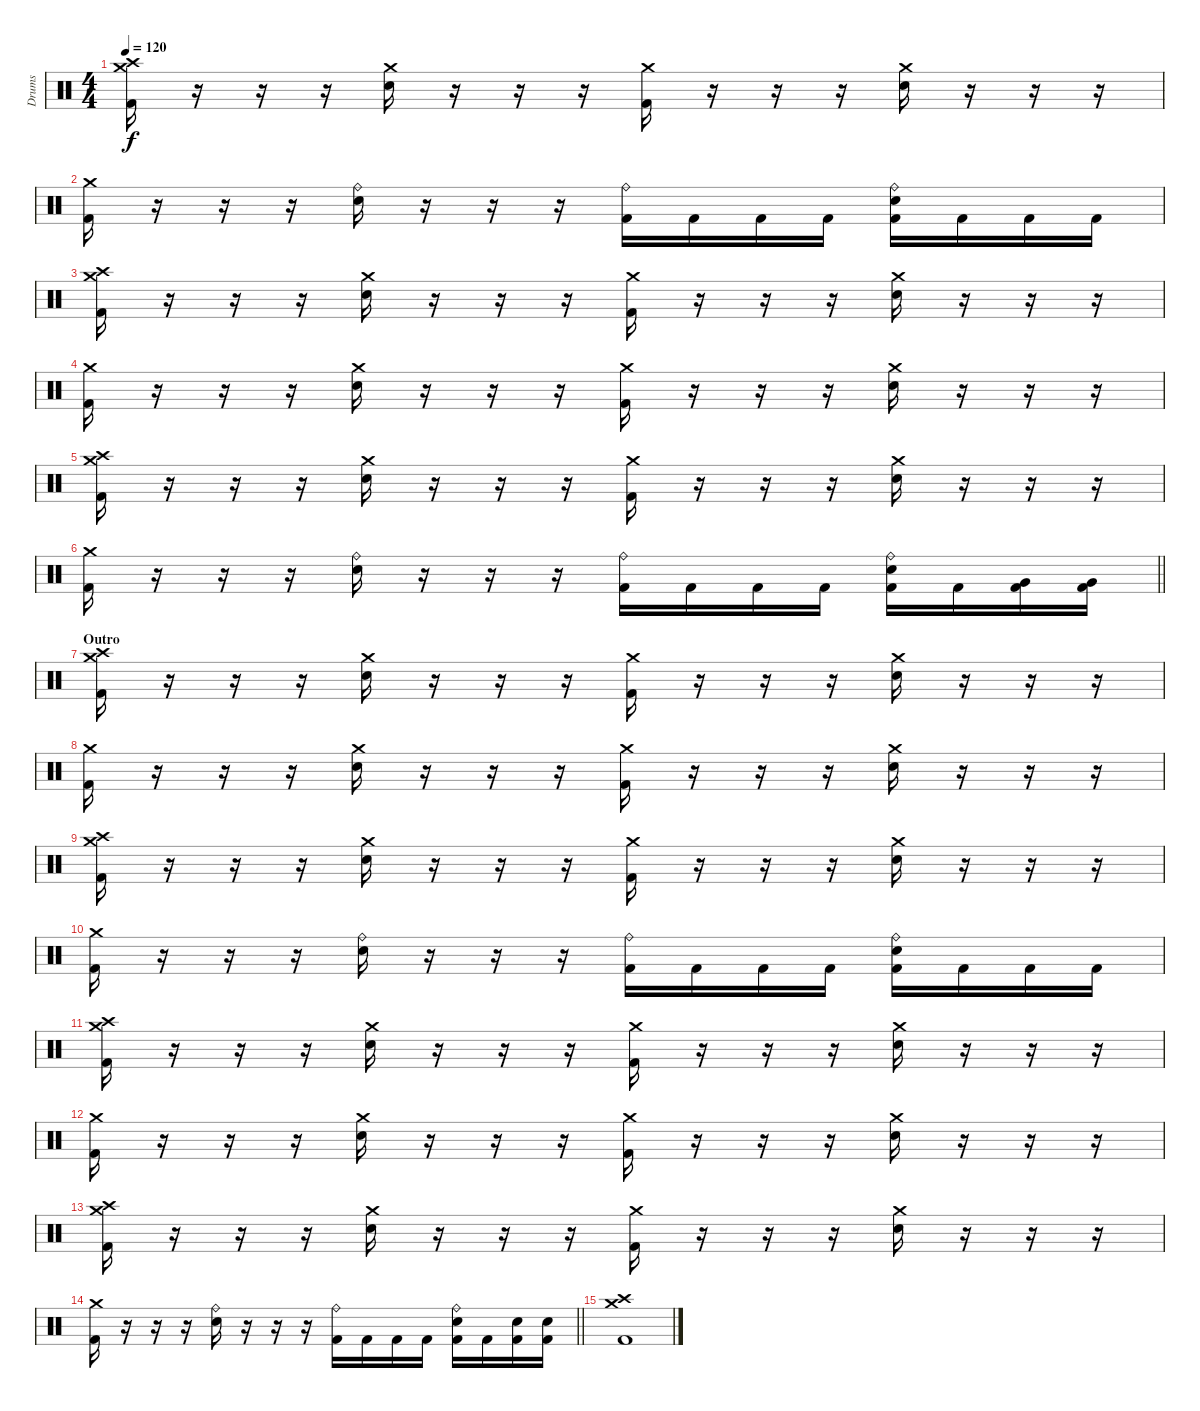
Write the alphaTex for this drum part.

\track ("Drums" "Drums") {instrument percussion}
\staff {score}
\articulation defaults
\ts (4 4)
\tempo 120
\clef neutral
\ks c
("Crash medium (hit)" "Crash high (hit)" "Kick (hit) 2").16{dy f} r.16 r.16 r.16 ("Crash medium (hit)" "Electric Snare (hit)").16 r.16 r.16 r.16 ("Crash medium (hit)" "Kick (hit) 2").16 r.16 r.16 r.16 ("Crash medium (hit)" "Electric Snare (hit)").16 r.16 r.16 r.16 |
("Crash medium (hit)" "Kick (hit) 2").16 r.16 r.16 r.16 ("Ride (bell)" "Electric Snare (hit)").16 r.16 r.16 r.16 ("Ride (bell)" "Kick (hit) 2").16 "Kick (hit) 2".16 "Kick (hit) 2".16 "Kick (hit) 2".16 ("Ride (bell)" "Electric Snare (hit)" "Kick (hit) 2").16 "Kick (hit) 2".16 "Kick (hit) 2".16 "Kick (hit) 2".16 |
("Crash medium (hit)" "Crash high (hit)" "Kick (hit) 2").16 r.16 r.16 r.16 ("Crash medium (hit)" "Electric Snare (hit)").16 r.16 r.16 r.16 ("Crash medium (hit)" "Kick (hit) 2").16 r.16 r.16 r.16 ("Crash medium (hit)" "Electric Snare (hit)").16 r.16 r.16 r.16 |
("Crash medium (hit)" "Kick (hit) 2").16 r.16 r.16 r.16 ("Crash medium (hit)" "Electric Snare (hit)").16 r.16 r.16 r.16 ("Crash medium (hit)" "Kick (hit) 2").16 r.16 r.16 r.16 ("Crash medium (hit)" "Electric Snare (hit)").16 r.16 r.16 r.16 |
("Crash medium (hit)" "Crash high (hit)" "Kick (hit) 2").16 r.16 r.16 r.16 ("Crash medium (hit)" "Electric Snare (hit)").16 r.16 r.16 r.16 ("Crash medium (hit)" "Kick (hit) 2").16 r.16 r.16 r.16 ("Crash medium (hit)" "Electric Snare (hit)").16 r.16 r.16 r.16 |
\barLineRight lightlight
("Crash medium (hit)" "Kick (hit) 2").16 r.16 r.16 r.16 ("Ride (bell)" "Electric Snare (hit)").16 r.16 r.16 r.16 ("Ride (bell)" "Kick (hit) 2").16 "Kick (hit) 2".16 "Kick (hit) 2".16 "Kick (hit) 2".16 ("Ride (bell)" "Electric Snare (hit)" "Kick (hit) 2").16 "Kick (hit) 2".16 ("Very Low Tom (hit)" "Kick (hit) 2").16 ("Very Low Tom (hit)" "Kick (hit) 2").16 |
\section ("" "Outro")
("Crash medium (hit)" "Crash high (hit)" "Kick (hit) 2").16 r.16 r.16 r.16 ("Crash medium (hit)" "Electric Snare (hit)").16 r.16 r.16 r.16 ("Crash medium (hit)" "Kick (hit) 2").16 r.16 r.16 r.16 ("Crash medium (hit)" "Electric Snare (hit)").16 r.16 r.16 r.16 |
("Crash medium (hit)" "Kick (hit) 2").16 r.16 r.16 r.16 ("Crash medium (hit)" "Electric Snare (hit)").16 r.16 r.16 r.16 ("Crash medium (hit)" "Kick (hit) 2").16 r.16 r.16 r.16 ("Crash medium (hit)" "Electric Snare (hit)").16 r.16 r.16 r.16 |
("Crash medium (hit)" "Crash high (hit)" "Kick (hit) 2").16 r.16 r.16 r.16 ("Crash medium (hit)" "Electric Snare (hit)").16 r.16 r.16 r.16 ("Crash medium (hit)" "Kick (hit) 2").16 r.16 r.16 r.16 ("Crash medium (hit)" "Electric Snare (hit)").16 r.16 r.16 r.16 |
("Crash medium (hit)" "Kick (hit) 2").16 r.16 r.16 r.16 ("Ride (bell)" "Electric Snare (hit)").16 r.16 r.16 r.16 ("Ride (bell)" "Kick (hit) 2").16 "Kick (hit) 2".16 "Kick (hit) 2".16 "Kick (hit) 2".16 ("Ride (bell)" "Electric Snare (hit)" "Kick (hit) 2").16 "Kick (hit) 2".16 "Kick (hit) 2".16 "Kick (hit) 2".16 |
("Crash medium (hit)" "Crash high (hit)" "Kick (hit) 2").16 r.16 r.16 r.16 ("Crash medium (hit)" "Electric Snare (hit)").16 r.16 r.16 r.16 ("Crash medium (hit)" "Kick (hit) 2").16 r.16 r.16 r.16 ("Crash medium (hit)" "Electric Snare (hit)").16 r.16 r.16 r.16 |
("Crash medium (hit)" "Kick (hit) 2").16 r.16 r.16 r.16 ("Crash medium (hit)" "Electric Snare (hit)").16 r.16 r.16 r.16 ("Crash medium (hit)" "Kick (hit) 2").16 r.16 r.16 r.16 ("Crash medium (hit)" "Electric Snare (hit)").16 r.16 r.16 r.16 |
("Crash medium (hit)" "Crash high (hit)" "Kick (hit) 2").16 r.16 r.16 r.16 ("Crash medium (hit)" "Electric Snare (hit)").16 r.16 r.16 r.16 ("Crash medium (hit)" "Kick (hit) 2").16 r.16 r.16 r.16 ("Crash medium (hit)" "Electric Snare (hit)").16 r.16 r.16 r.16 |
\barLineRight lightlight
("Crash medium (hit)" "Kick (hit) 2").16 r.16 r.16 r.16 ("Ride (bell)" "Electric Snare (hit)").16 r.16 r.16 r.16 ("Ride (bell)" "Kick (hit) 2").16 "Kick (hit) 2".16 "Kick (hit) 2".16 "Kick (hit) 2".16 ("Ride (bell)" "Electric Snare (hit)" "Kick (hit) 2").16 "Kick (hit) 2".16 ("Electric Snare (hit)" "Kick (hit) 2").16 ("Electric Snare (hit)" "Kick (hit) 2").16 |
("Crash medium (hit)" "Crash high (hit)" "Kick (hit) 2").1
